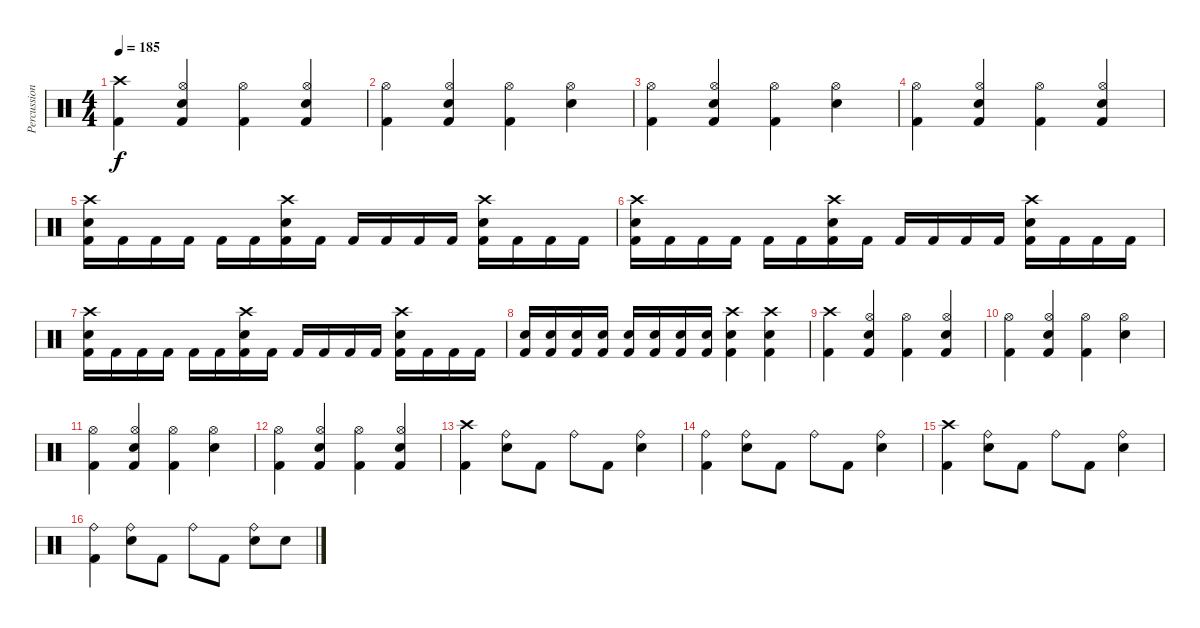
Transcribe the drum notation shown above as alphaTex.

\track ("Percussion" "Percussion") {instrument percussion}
\staff {score}
\articulation defaults
\ts (4 4)
\tempo 185
\clef neutral
\ks c
("Crash high (hit)" "Kick (hit) 2").4{dy f} ("Hi-Hat (open)" "Snare (hit) 2" "Kick (hit) 2").4 ("Hi-Hat (open)" "Kick (hit) 2").4 ("Hi-Hat (open)" "Snare (hit) 2" "Kick (hit) 2").4 |
("Hi-Hat (open)" "Kick (hit) 2").4 ("Hi-Hat (open)" "Snare (hit) 2" "Kick (hit) 2").4 ("Hi-Hat (open)" "Kick (hit) 2").4 ("Hi-Hat (open)" "Snare (hit) 2").4 |
("Hi-Hat (open)" "Kick (hit) 2").4 ("Hi-Hat (open)" "Snare (hit) 2" "Kick (hit) 2").4 ("Hi-Hat (open)" "Kick (hit) 2").4 ("Hi-Hat (open)" "Snare (hit) 2").4 |
("Hi-Hat (open)" "Kick (hit) 2").4 ("Hi-Hat (open)" "Snare (hit) 2" "Kick (hit) 2").4 ("Hi-Hat (open)" "Kick (hit) 2").4 ("Hi-Hat (open)" "Snare (hit) 2" "Kick (hit) 2").4 |
("Crash high (hit)" "Snare (hit) 2" "Kick (hit) 2").16 "Kick (hit) 2".16 "Kick (hit) 2".16 "Kick (hit) 2".16 "Kick (hit) 2".16 "Kick (hit) 2".16 ("Crash high (hit)" "Snare (hit) 2" "Kick (hit) 2").16 "Kick (hit) 2".16 "Kick (hit) 2".16 "Kick (hit) 2".16 "Kick (hit) 2".16 "Kick (hit) 2".16 ("Crash high (hit)" "Snare (hit) 2" "Kick (hit) 2").16 "Kick (hit) 2".16 "Kick (hit) 2".16 "Kick (hit) 2".16 |
("Crash high (hit)" "Snare (hit) 2" "Kick (hit) 2").16 "Kick (hit) 2".16 "Kick (hit) 2".16 "Kick (hit) 2".16 "Kick (hit) 2".16 "Kick (hit) 2".16 ("Crash high (hit)" "Snare (hit) 2" "Kick (hit) 2").16 "Kick (hit) 2".16 "Kick (hit) 2".16 "Kick (hit) 2".16 "Kick (hit) 2".16 "Kick (hit) 2".16 ("Crash high (hit)" "Snare (hit) 2" "Kick (hit) 2").16 "Kick (hit) 2".16 "Kick (hit) 2".16 "Kick (hit) 2".16 |
("Crash high (hit)" "Snare (hit) 2" "Kick (hit) 2").16 "Kick (hit) 2".16 "Kick (hit) 2".16 "Kick (hit) 2".16 "Kick (hit) 2".16 "Kick (hit) 2".16 ("Crash high (hit)" "Snare (hit) 2" "Kick (hit) 2").16 "Kick (hit) 2".16 "Kick (hit) 2".16 "Kick (hit) 2".16 "Kick (hit) 2".16 "Kick (hit) 2".16 ("Crash high (hit)" "Snare (hit) 2" "Kick (hit) 2").16 "Kick (hit) 2".16 "Kick (hit) 2".16 "Kick (hit) 2".16 |
("Snare (hit) 2" "Kick (hit) 2").16 ("Snare (hit) 2" "Kick (hit) 2").16 ("Snare (hit) 2" "Kick (hit) 2").16 ("Snare (hit) 2" "Kick (hit) 2").16 ("Snare (hit) 2" "Kick (hit) 2").16 ("Snare (hit) 2" "Kick (hit) 2").16 ("Snare (hit) 2" "Kick (hit) 2").16 ("Snare (hit) 2" "Kick (hit) 2").16 ("Crash high (hit)" "Snare (hit) 2" "Kick (hit) 2").4 ("Crash high (hit)" "Snare (hit) 2" "Kick (hit) 2").4 |
("Crash high (hit)" "Kick (hit) 2").4 ("Hi-Hat (open)" "Snare (hit) 2" "Kick (hit) 2").4 ("Hi-Hat (open)" "Kick (hit) 2").4 ("Hi-Hat (open)" "Snare (hit) 2" "Kick (hit) 2").4 |
("Hi-Hat (open)" "Kick (hit) 2").4 ("Hi-Hat (open)" "Snare (hit) 2" "Kick (hit) 2").4 ("Hi-Hat (open)" "Kick (hit) 2").4 ("Hi-Hat (open)" "Snare (hit) 2").4 |
("Hi-Hat (open)" "Kick (hit) 2").4 ("Hi-Hat (open)" "Snare (hit) 2" "Kick (hit) 2").4 ("Hi-Hat (open)" "Kick (hit) 2").4 ("Hi-Hat (open)" "Snare (hit) 2").4 |
("Hi-Hat (open)" "Kick (hit) 2").4 ("Hi-Hat (open)" "Snare (hit) 2" "Kick (hit) 2").4 ("Hi-Hat (open)" "Kick (hit) 2").4 ("Hi-Hat (open)" "Snare (hit) 2" "Kick (hit) 2").4 |
("Crash high (hit)" "Kick (hit) 2").4 ("Ride (bell)" "Snare (hit) 2").8 "Kick (hit) 2".8 "Ride (bell)".8 "Kick (hit) 2".8 ("Ride (bell)" "Snare (hit) 2").4 |
("Ride (bell)" "Kick (hit) 2").4 ("Ride (bell)" "Snare (hit) 2").8 "Kick (hit) 2".8 "Ride (bell)".8 "Kick (hit) 2".8 ("Ride (bell)" "Snare (hit) 2").4 |
("Crash high (hit)" "Kick (hit) 2").4 ("Ride (bell)" "Snare (hit) 2").8 "Kick (hit) 2".8 "Ride (bell)".8 "Kick (hit) 2".8 ("Ride (bell)" "Snare (hit) 2").4 |
("Ride (bell)" "Kick (hit) 2").4 ("Ride (bell)" "Snare (hit) 2").8 "Kick (hit) 2".8 "Ride (bell)".8 "Kick (hit) 2".8 ("Ride (bell)" "Snare (hit) 2").8 "Snare (hit) 2".8
